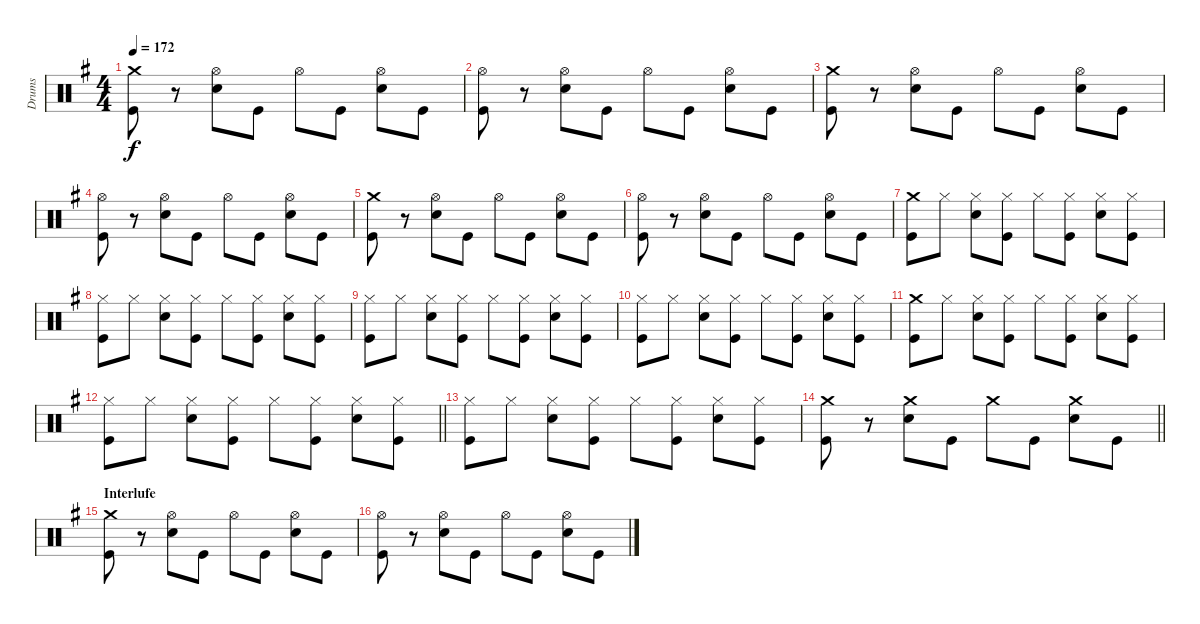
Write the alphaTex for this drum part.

\track ("Drums" "Drums") {instrument percussion}
\staff {score}
\articulation defaults
\ts (4 4)
\tempo 172
\clef neutral
\ks g
("Crash medium (hit)" "Kick (hit)").8{dy f} r.8 ("Hi-Hat (open)" "Snare (hit) 2").8 "Kick (hit)".8 "Hi-Hat (open)".8 "Kick (hit)".8 ("Hi-Hat (open)" "Snare (hit) 2").8 "Kick (hit)".8 |
("Hi-Hat (open)" "Kick (hit)").8 r.8 ("Hi-Hat (open)" "Snare (hit) 2").8 "Kick (hit)".8 "Hi-Hat (open)".8 "Kick (hit)".8 ("Hi-Hat (open)" "Snare (hit) 2").8 "Kick (hit)".8 |
("Crash medium (hit)" "Kick (hit)").8 r.8 ("Hi-Hat (open)" "Snare (hit) 2").8 "Kick (hit)".8 "Hi-Hat (open)".8 "Kick (hit)".8 ("Hi-Hat (open)" "Snare (hit) 2").8 "Kick (hit)".8 |
("Hi-Hat (open)" "Kick (hit)").8 r.8 ("Hi-Hat (open)" "Snare (hit) 2").8 "Kick (hit)".8 "Hi-Hat (open)".8 "Kick (hit)".8 ("Hi-Hat (open)" "Snare (hit) 2").8 "Kick (hit)".8 |
("Crash medium (hit)" "Kick (hit)").8 r.8 ("Hi-Hat (open)" "Snare (hit) 2").8 "Kick (hit)".8 "Hi-Hat (open)".8 "Kick (hit)".8 ("Hi-Hat (open)" "Snare (hit) 2").8 "Kick (hit)".8 |
("Hi-Hat (open)" "Kick (hit)").8 r.8 ("Hi-Hat (open)" "Snare (hit) 2").8 "Kick (hit)".8 "Hi-Hat (open)".8 "Kick (hit)".8 ("Hi-Hat (open)" "Snare (hit) 2").8 "Kick (hit)".8 |
("Crash medium (hit)" "Kick (hit)").8 "Hi-Hat (closed)".8 ("Hi-Hat (closed)" "Snare (hit) 2").8 ("Hi-Hat (closed)" "Kick (hit)").8 "Hi-Hat (closed)".8 ("Hi-Hat (closed)" "Kick (hit)").8 ("Hi-Hat (closed)" "Snare (hit) 2").8 ("Hi-Hat (closed)" "Kick (hit)").8 |
("Hi-Hat (closed)" "Kick (hit)").8 "Hi-Hat (closed)".8 ("Hi-Hat (closed)" "Snare (hit) 2").8 ("Hi-Hat (closed)" "Kick (hit)").8 "Hi-Hat (closed)".8 ("Hi-Hat (closed)" "Kick (hit)").8 ("Hi-Hat (closed)" "Snare (hit) 2").8 ("Hi-Hat (closed)" "Kick (hit)").8 |
("Hi-Hat (closed)" "Kick (hit)").8 "Hi-Hat (closed)".8 ("Hi-Hat (closed)" "Snare (hit) 2").8 ("Hi-Hat (closed)" "Kick (hit)").8 "Hi-Hat (closed)".8 ("Hi-Hat (closed)" "Kick (hit)").8 ("Hi-Hat (closed)" "Snare (hit) 2").8 ("Hi-Hat (closed)" "Kick (hit)").8 |
("Hi-Hat (closed)" "Kick (hit)").8 "Hi-Hat (closed)".8 ("Hi-Hat (closed)" "Snare (hit) 2").8 ("Hi-Hat (closed)" "Kick (hit)").8 "Hi-Hat (closed)".8 ("Hi-Hat (closed)" "Kick (hit)").8 ("Hi-Hat (closed)" "Snare (hit) 2").8 ("Hi-Hat (closed)" "Kick (hit)").8 |
("Crash medium (hit)" "Kick (hit)").8 "Hi-Hat (closed)".8 ("Hi-Hat (closed)" "Snare (hit) 2").8 ("Hi-Hat (closed)" "Kick (hit)").8 "Hi-Hat (closed)".8 ("Hi-Hat (closed)" "Kick (hit)").8 ("Hi-Hat (closed)" "Snare (hit) 2").8 ("Hi-Hat (closed)" "Kick (hit)").8 |
\barLineRight lightlight
("Hi-Hat (closed)" "Kick (hit)").8 "Hi-Hat (closed)".8 ("Hi-Hat (closed)" "Snare (hit) 2").8 ("Hi-Hat (closed)" "Kick (hit)").8 "Hi-Hat (closed)".8 ("Hi-Hat (closed)" "Kick (hit)").8 ("Hi-Hat (closed)" "Snare (hit) 2").8 ("Hi-Hat (closed)" "Kick (hit)").8 |
("Hi-Hat (closed)" "Kick (hit)").8 "Hi-Hat (closed)".8 ("Hi-Hat (closed)" "Snare (hit) 2").8 ("Hi-Hat (closed)" "Kick (hit)").8 "Hi-Hat (closed)".8 ("Hi-Hat (closed)" "Kick (hit)").8 ("Hi-Hat (closed)" "Snare (hit) 2").8 ("Hi-Hat (closed)" "Kick (hit)").8 |
\barLineRight lightlight
("Crash medium (hit)" "Kick (hit)").8 r.8 ("Crash medium (hit)" "Snare (hit) 2").8 "Kick (hit)".8 "Crash medium (hit)".8 "Kick (hit)".8 ("Crash medium (hit)" "Snare (hit) 2").8 "Kick (hit)".8 |
\section ("" "Interlufe")
("Crash medium (hit)" "Kick (hit)").8 r.8 ("Hi-Hat (open)" "Snare (hit) 2").8 "Kick (hit)".8 "Hi-Hat (open)".8 "Kick (hit)".8 ("Hi-Hat (open)" "Snare (hit) 2").8 "Kick (hit)".8 |
("Hi-Hat (open)" "Kick (hit)").8 r.8 ("Hi-Hat (open)" "Snare (hit) 2").8 "Kick (hit)".8 "Hi-Hat (open)".8 "Kick (hit)".8 ("Hi-Hat (open)" "Snare (hit) 2").8 "Kick (hit)".8
